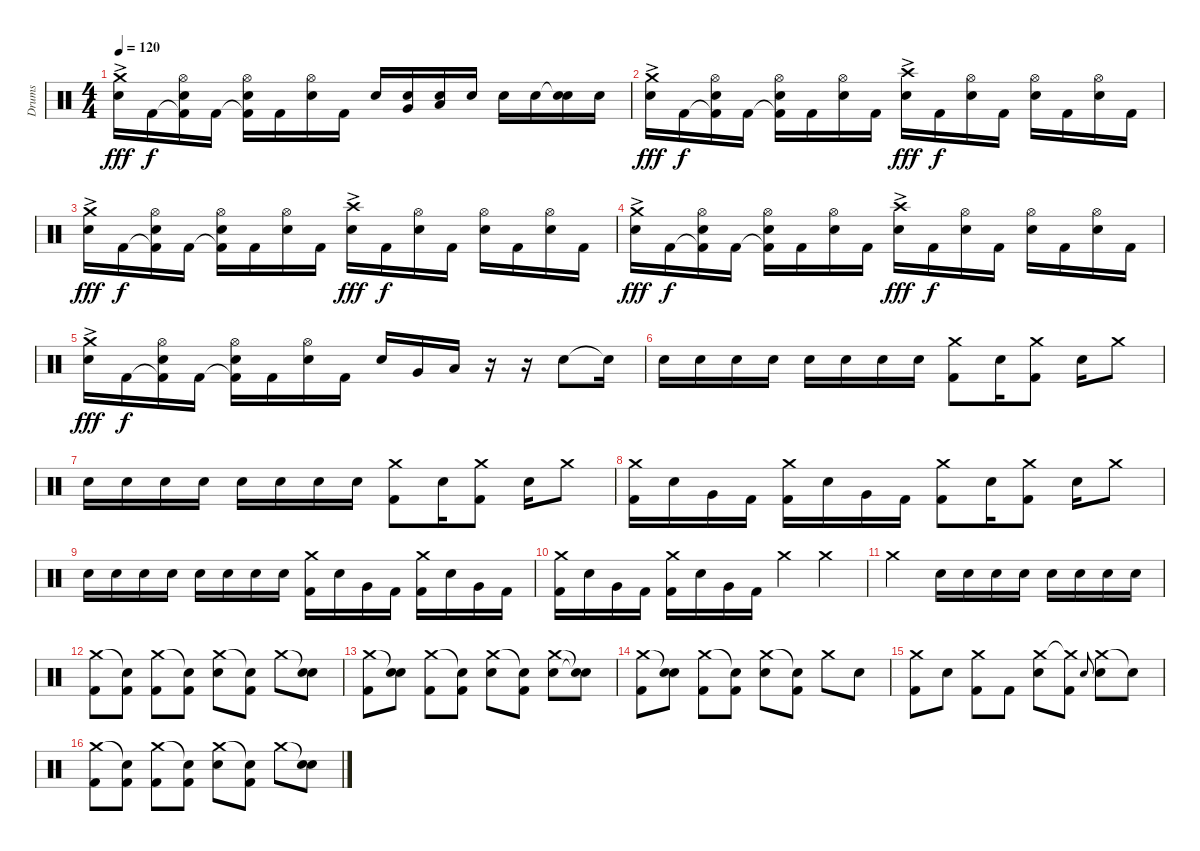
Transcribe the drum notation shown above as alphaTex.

\track ("Drums" "Drums") {instrument percussion}
\staff {score}
\articulation defaults
\ts (4 4)
\tempo 120
\clef neutral
\ks c
("Electric Snare (hit)"{ac} "Crash medium (hit)").16{dy fff} "Kick (hit) 2".16{dy f} ("Kick (hit) 2"{t} "Hi-Hat (open)" "Electric Snare (hit)").16 "Kick (hit) 2".16 ("Kick (hit) 2"{t} "Hi-Hat (open)" "Electric Snare (hit)").16 "Kick (hit) 2".16 ("Hi-Hat (open)" "Electric Snare (hit)").16 "Kick (hit) 2".16 "Electric Snare (hit)".16 ("Very Low Tom (hit)" "Electric Snare (hit)").16 ("Low Tom (hit)" "Electric Snare (hit)").16 "Electric Snare (hit)".16 "Electric Snare (hit)".16 "Electric Snare (hit)".16 ("Snare (hit)"{t} "Electric Snare (hit)").16 "Electric Snare (hit)".16 |
("Electric Snare (hit)"{ac} "Crash medium (hit)").16{dy fff} "Kick (hit) 2".16{dy f} ("Kick (hit) 2"{t} "Hi-Hat (open)" "Electric Snare (hit)").16 "Kick (hit) 2".16 ("Kick (hit) 2"{t} "Hi-Hat (open)" "Electric Snare (hit)").16 "Kick (hit) 2".16 ("Hi-Hat (open)" "Electric Snare (hit)").16 "Kick (hit) 2".16 ("Electric Snare (hit)"{ac} "Crash high (hit)").16{dy fff} "Kick (hit) 2".16{dy f} ("Hi-Hat (open)" "Electric Snare (hit)").16 "Kick (hit) 2".16 ("Hi-Hat (open)" "Electric Snare (hit)").16 "Kick (hit) 2".16 ("Hi-Hat (open)" "Electric Snare (hit)").16 "Kick (hit) 2".16 |
("Electric Snare (hit)"{ac} "Crash medium (hit)").16{dy fff} "Kick (hit) 2".16{dy f} ("Kick (hit) 2"{t} "Hi-Hat (open)" "Electric Snare (hit)").16 "Kick (hit) 2".16 ("Kick (hit) 2"{t} "Hi-Hat (open)" "Electric Snare (hit)").16 "Kick (hit) 2".16 ("Hi-Hat (open)" "Electric Snare (hit)").16 "Kick (hit) 2".16 ("Electric Snare (hit)"{ac} "Crash high (hit)").16{dy fff} "Kick (hit) 2".16{dy f} ("Hi-Hat (open)" "Electric Snare (hit)").16 "Kick (hit) 2".16 ("Hi-Hat (open)" "Electric Snare (hit)").16 "Kick (hit) 2".16 ("Hi-Hat (open)" "Electric Snare (hit)").16 "Kick (hit) 2".16 |
("Electric Snare (hit)"{ac} "Crash medium (hit)").16{dy fff} "Kick (hit) 2".16{dy f} ("Kick (hit) 2"{t} "Hi-Hat (open)" "Electric Snare (hit)").16 "Kick (hit) 2".16 ("Kick (hit) 2"{t} "Hi-Hat (open)" "Electric Snare (hit)").16 "Kick (hit) 2".16 ("Hi-Hat (open)" "Electric Snare (hit)").16 "Kick (hit) 2".16 ("Electric Snare (hit)"{ac} "Crash high (hit)").16{dy fff} "Kick (hit) 2".16{dy f} ("Hi-Hat (open)" "Electric Snare (hit)").16 "Kick (hit) 2".16 ("Hi-Hat (open)" "Electric Snare (hit)").16 "Kick (hit) 2".16 ("Hi-Hat (open)" "Electric Snare (hit)").16 "Kick (hit) 2".16 |
("Electric Snare (hit)"{ac} "Crash medium (hit)").16{dy fff} "Kick (hit) 2".16{dy f} ("Kick (hit) 2"{t} "Hi-Hat (open)" "Electric Snare (hit)").16 "Kick (hit) 2".16 ("Kick (hit) 2"{t} "Hi-Hat (open)" "Electric Snare (hit)").16 "Kick (hit) 2".16 ("Hi-Hat (open)" "Electric Snare (hit)").16 "Kick (hit) 2".16 "Electric Snare (hit)".16 "Very Low Tom (hit)".16 "Low Tom (hit)".16 r.16 r.16 "Electric Snare (hit)".8 "Snare (hit)"{t}.16 |
"Electric Snare (hit)".16 "Electric Snare (hit)".16 "Electric Snare (hit)".16 "Electric Snare (hit)".16 "Electric Snare (hit)".16 "Electric Snare (hit)".16 "Electric Snare (hit)".16 "Electric Snare (hit)".16 ("Kick (hit) 2" "Crash medium (hit)").8 "Electric Snare (hit)".16 ("Kick (hit) 2" "Crash medium (hit)").8 "Electric Snare (hit)".16 "Crash medium (hit)".8 |
"Electric Snare (hit)".16 "Electric Snare (hit)".16 "Electric Snare (hit)".16 "Electric Snare (hit)".16 "Electric Snare (hit)".16 "Electric Snare (hit)".16 "Electric Snare (hit)".16 "Electric Snare (hit)".16 ("Kick (hit) 2" "Crash medium (hit)").8 "Electric Snare (hit)".16 ("Kick (hit) 2" "Crash medium (hit)").8 "Electric Snare (hit)".16 "Crash medium (hit)".8 |
("Crash medium (hit)" "Kick (hit) 2").16 "Electric Snare (hit)".16 "Very Low Tom (hit)".16 "Kick (hit) 2".16 ("Crash medium (hit)" "Kick (hit) 2").16 "Electric Snare (hit)".16 "Very Low Tom (hit)".16 "Kick (hit) 2".16 ("Kick (hit) 2" "Crash medium (hit)").8 "Electric Snare (hit)".16 ("Kick (hit) 2" "Crash medium (hit)").8 "Electric Snare (hit)".16 "Crash medium (hit)".8 |
"Electric Snare (hit)".16 "Electric Snare (hit)".16 "Electric Snare (hit)".16 "Electric Snare (hit)".16 "Electric Snare (hit)".16 "Electric Snare (hit)".16 "Electric Snare (hit)".16 "Electric Snare (hit)".16 ("Crash medium (hit)" "Kick (hit) 2").16 "Electric Snare (hit)".16 "Very Low Tom (hit)".16 "Kick (hit) 2".16 ("Crash medium (hit)" "Kick (hit) 2").16 "Electric Snare (hit)".16 "Very Low Tom (hit)".16 "Kick (hit) 2".16 |
("Crash medium (hit)" "Kick (hit) 2").16 "Electric Snare (hit)".16 "Very Low Tom (hit)".16 "Kick (hit) 2".16 ("Crash medium (hit)" "Kick (hit) 2").16 "Electric Snare (hit)".16 "Very Low Tom (hit)".16 "Kick (hit) 2".16 "Crash medium (hit)".4 "Crash medium (hit)".4 |
"Crash medium (hit)".2 "Electric Snare (hit)".16 "Electric Snare (hit)".16 "Electric Snare (hit)".16 "Electric Snare (hit)".16 "Electric Snare (hit)".16 "Electric Snare (hit)".16 "Electric Snare (hit)".16 "Electric Snare (hit)".16 |
("Crash medium (hit)" "Kick (hit) 2").8 ("Snare (hit)"{t} "Kick (hit) 2").8 ("Crash medium (hit)" "Kick (hit) 2").8 ("Snare (hit)"{t} "Kick (hit) 2").8 ("Crash medium (hit)" "Electric Snare (hit)").8 ("Snare (hit)"{t} "Kick (hit) 2").8 "Crash medium (hit)".8 ("Snare (hit)"{t} "Electric Snare (hit)").8 |
("Crash medium (hit)" "Kick (hit) 2").8 ("Snare (hit)"{t} "Electric Snare (hit)").8 ("Crash medium (hit)" "Kick (hit) 2").8 ("Snare (hit)"{t} "Kick (hit) 2").8 ("Crash medium (hit)" "Electric Snare (hit)").8 ("Snare (hit)"{t} "Kick (hit) 2").8 ("Crash medium (hit)" "Electric Snare (hit)").8 ("Snare (hit)"{t} "Electric Snare (hit)"{t}).8 |
("Crash medium (hit)" "Kick (hit) 2").8 ("Snare (hit)"{t} "Electric Snare (hit)").8 ("Crash medium (hit)" "Kick (hit) 2").8 ("Snare (hit)"{t} "Kick (hit) 2").8 ("Crash medium (hit)" "Electric Snare (hit)").8 ("Snare (hit)"{t} "Kick (hit) 2").8 "Crash medium (hit)".8 "Electric Snare (hit)".8 |
("Crash medium (hit)" "Kick (hit) 2").8 "Electric Snare (hit)".8 ("Crash medium (hit)" "Kick (hit) 2").8 "Kick (hit) 2".8 ("Crash medium (hit)" "Electric Snare (hit)").8 ("Crash medium (hit)"{t} "Kick (hit) 2").8 "Electric Snare (hit)".8{gr onbeat} ("Crash medium (hit)" "Electric Snare (hit)").8 "Snare (hit)"{t}.8 |
("Crash medium (hit)" "Kick (hit) 2").8 ("Snare (hit)"{t} "Kick (hit) 2").8 ("Crash medium (hit)" "Kick (hit) 2").8 ("Snare (hit)"{t} "Kick (hit) 2").8 ("Crash medium (hit)" "Electric Snare (hit)").8 ("Snare (hit)"{t} "Kick (hit) 2").8 "Crash medium (hit)".8 ("Snare (hit)"{t} "Electric Snare (hit)").8
